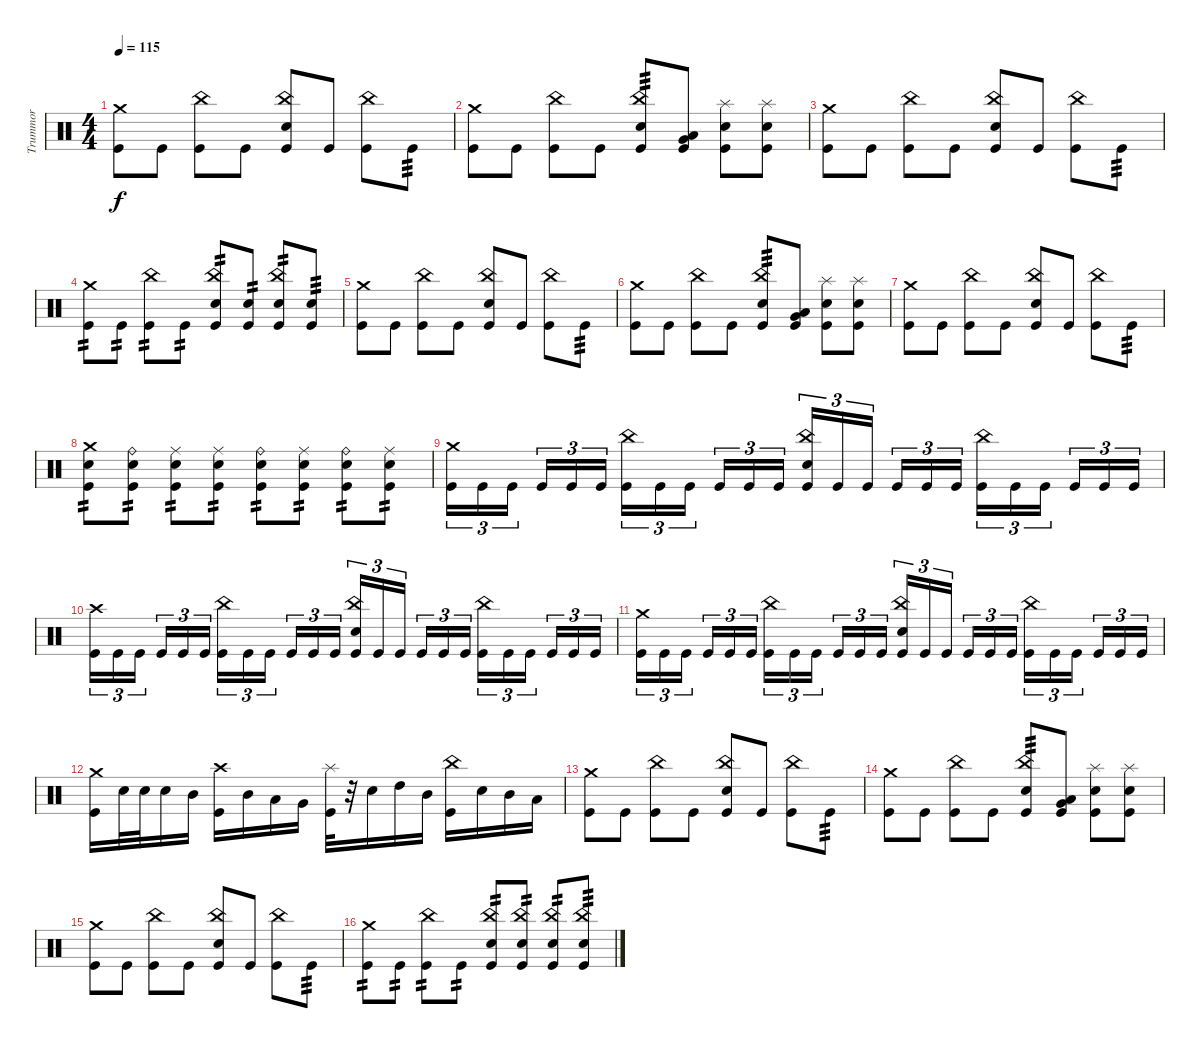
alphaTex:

\track ("Trummor" "Trummor") {instrument percussion}
\staff {score}
\articulation defaults
\ts (4 4)
\tempo 115
\clef neutral
\ks c
("Crash medium (hit)" "Kick (hit)").8{dy f} "Kick (hit)".8 ("China (hit)" "Kick (hit)").8 "Kick (hit)".8 ("China (hit)" "Electric Snare (hit)" "Kick (hit)").8 "Kick (hit)".8 ("China (hit)" "Kick (hit)").8 "Kick (hit)".8{tp 3} |
("Crash medium (hit)" "Kick (hit)").8 "Kick (hit)".8 ("China (hit)" "Kick (hit)").8 "Kick (hit)".8 ("China (hit)" "Electric Snare (hit)" "Kick (hit)").8{tp 3} ("Very Low Tom (hit)" "Low Tom (hit)" "Kick (hit)").8 ("Splash (hit)" "Electric Snare (hit)" "Kick (hit)").8 ("Splash (hit)" "Electric Snare (hit)" "Kick (hit)").8 |
("Crash medium (hit)" "Kick (hit)").8 "Kick (hit)".8 ("China (hit)" "Kick (hit)").8 "Kick (hit)".8 ("China (hit)" "Electric Snare (hit)" "Kick (hit)").8 "Kick (hit)".8 ("China (hit)" "Kick (hit)").8 "Kick (hit)".8{tp 3} |
("Crash medium (hit)" "Kick (hit)").8{tp 2} "Kick (hit)".8{tp 2} ("China (hit)" "Kick (hit)").8{tp 2} "Kick (hit)".8{tp 2} ("China (hit)" "Electric Snare (hit)" "Kick (hit)").8{tp 2} ("Electric Snare (hit)" "Kick (hit)").8{tp 2} ("China (hit)" "Electric Snare (hit)" "Kick (hit)").8{tp 2} ("Electric Snare (hit)" "Kick (hit)").8{tp 3} |
("Crash medium (hit)" "Kick (hit)").8 "Kick (hit)".8 ("China (hit)" "Kick (hit)").8 "Kick (hit)".8 ("China (hit)" "Electric Snare (hit)" "Kick (hit)").8 "Kick (hit)".8 ("China (hit)" "Kick (hit)").8 "Kick (hit)".8{tp 3} |
("Crash medium (hit)" "Kick (hit)").8 "Kick (hit)".8 ("China (hit)" "Kick (hit)").8 "Kick (hit)".8 ("China (hit)" "Electric Snare (hit)" "Kick (hit)").8{tp 3} ("Very Low Tom (hit)" "Low Tom (hit)" "Kick (hit)").8 ("Splash (hit)" "Electric Snare (hit)" "Kick (hit)").8 ("Splash (hit)" "Electric Snare (hit)" "Kick (hit)").8 |
("Crash medium (hit)" "Kick (hit)").8 "Kick (hit)".8 ("China (hit)" "Kick (hit)").8 "Kick (hit)".8 ("China (hit)" "Electric Snare (hit)" "Kick (hit)").8 "Kick (hit)".8 ("China (hit)" "Kick (hit)").8 "Kick (hit)".8{tp 3} |
("Crash medium (hit)" "Electric Snare (hit)" "Kick (hit)").8{tp 2} ("Ride (bell)" "Electric Snare (hit)" "Kick (hit)").8{tp 2} ("Ride (middle)" "Electric Snare (hit)" "Kick (hit)").8{tp 2} ("Ride (middle)" "Electric Snare (hit)" "Kick (hit)").8{tp 2} ("Ride (bell)" "Electric Snare (hit)" "Kick (hit)").8{tp 2} ("Ride (middle)" "Electric Snare (hit)" "Kick (hit)").8{tp 2} ("Ride (bell)" "Electric Snare (hit)" "Kick (hit)").8{tp 2} ("Ride (middle)" "Electric Snare (hit)" "Kick (hit)").8{tp 2} |
("Crash medium (hit)" "Kick (hit)").16{tu (3 2)} "Kick (hit)".16{tu (3 2)} "Kick (hit)".16{tu (3 2) beam splitsecondary} "Kick (hit)".16{tu (3 2)} "Kick (hit)".16{tu (3 2)} "Kick (hit)".16{tu (3 2)} ("China (hit)" "Kick (hit)").16{tu (3 2)} "Kick (hit)".16{tu (3 2)} "Kick (hit)".16{tu (3 2) beam splitsecondary} "Kick (hit)".16{tu (3 2)} "Kick (hit)".16{tu (3 2)} "Kick (hit)".16{tu (3 2)} ("China (hit)" "Electric Snare (hit)" "Kick (hit)").16{tu (3 2)} "Kick (hit)".16{tu (3 2)} "Kick (hit)".16{tu (3 2) beam splitsecondary} "Kick (hit)".16{tu (3 2)} "Kick (hit)".16{tu (3 2)} "Kick (hit)".16{tu (3 2)} ("China (hit)" "Kick (hit)").16{tu (3 2)} "Kick (hit)".16{tu (3 2)} "Kick (hit)".16{tu (3 2) beam splitsecondary} "Kick (hit)".16{tu (3 2)} "Kick (hit)".16{tu (3 2)} "Kick (hit)".16{tu (3 2)} |
("Crash high (hit)" "Kick (hit)").16{tu (3 2)} "Kick (hit)".16{tu (3 2)} "Kick (hit)".16{tu (3 2) beam splitsecondary} "Kick (hit)".16{tu (3 2)} "Kick (hit)".16{tu (3 2)} "Kick (hit)".16{tu (3 2)} ("China (hit)" "Kick (hit)").16{tu (3 2)} "Kick (hit)".16{tu (3 2)} "Kick (hit)".16{tu (3 2) beam splitsecondary} "Kick (hit)".16{tu (3 2)} "Kick (hit)".16{tu (3 2)} "Kick (hit)".16{tu (3 2)} ("China (hit)" "Electric Snare (hit)" "Kick (hit)").16{tu (3 2)} "Kick (hit)".16{tu (3 2)} "Kick (hit)".16{tu (3 2) beam splitsecondary} "Kick (hit)".16{tu (3 2)} "Kick (hit)".16{tu (3 2)} "Kick (hit)".16{tu (3 2)} ("China (hit)" "Kick (hit)").16{tu (3 2)} "Kick (hit)".16{tu (3 2)} "Kick (hit)".16{tu (3 2) beam splitsecondary} "Kick (hit)".16{tu (3 2)} "Kick (hit)".16{tu (3 2)} "Kick (hit)".16{tu (3 2)} |
("Crash medium (hit)" "Kick (hit)").16{tu (3 2)} "Kick (hit)".16{tu (3 2)} "Kick (hit)".16{tu (3 2) beam splitsecondary} "Kick (hit)".16{tu (3 2)} "Kick (hit)".16{tu (3 2)} "Kick (hit)".16{tu (3 2)} ("China (hit)" "Kick (hit)").16{tu (3 2)} "Kick (hit)".16{tu (3 2)} "Kick (hit)".16{tu (3 2) beam splitsecondary} "Kick (hit)".16{tu (3 2)} "Kick (hit)".16{tu (3 2)} "Kick (hit)".16{tu (3 2)} ("China (hit)" "Electric Snare (hit)" "Kick (hit)").16{tu (3 2)} "Kick (hit)".16{tu (3 2)} "Kick (hit)".16{tu (3 2) beam splitsecondary} "Kick (hit)".16{tu (3 2)} "Kick (hit)".16{tu (3 2)} "Kick (hit)".16{tu (3 2)} ("China (hit)" "Kick (hit)").16{tu (3 2)} "Kick (hit)".16{tu (3 2)} "Kick (hit)".16{tu (3 2) beam splitsecondary} "Kick (hit)".16{tu (3 2)} "Kick (hit)".16{tu (3 2)} "Kick (hit)".16{tu (3 2)} |
("Crash medium (hit)" "Kick (hit)").16 "Electric Snare (hit)".32 "Electric Snare (hit)".32 "Electric Snare (hit)".16 "Mid Tom (hit)".16 ("Crash high (hit)" "Kick (hit)").16 "Mid Tom (hit)".16 "Low Tom (hit)".16 "Very Low Tom (hit)".16 ("Splash (hit)" "Kick (hit)").32 r.32 "Electric Snare (hit)".16 "High Tom (hit)".16 "Mid Tom (hit)".16 ("China (hit)" "Kick (hit)").16 "Electric Snare (hit)".16 "Mid Tom (hit)".16 "Low Tom (hit)".16 |
("Crash medium (hit)" "Kick (hit)").8 "Kick (hit)".8 ("China (hit)" "Kick (hit)").8 "Kick (hit)".8 ("China (hit)" "Electric Snare (hit)" "Kick (hit)").8 "Kick (hit)".8 ("China (hit)" "Kick (hit)").8 "Kick (hit)".8{tp 3} |
("Crash medium (hit)" "Kick (hit)").8 "Kick (hit)".8 ("China (hit)" "Kick (hit)").8 "Kick (hit)".8 ("China (hit)" "Electric Snare (hit)" "Kick (hit)").8{tp 3} ("Very Low Tom (hit)" "Low Tom (hit)" "Kick (hit)").8 ("Splash (hit)" "Electric Snare (hit)" "Kick (hit)").8 ("Splash (hit)" "Electric Snare (hit)" "Kick (hit)").8 |
("Crash medium (hit)" "Kick (hit)").8 "Kick (hit)".8 ("China (hit)" "Kick (hit)").8 "Kick (hit)".8 ("China (hit)" "Electric Snare (hit)" "Kick (hit)").8 "Kick (hit)".8 ("China (hit)" "Kick (hit)").8 "Kick (hit)".8{tp 3} |
("Crash medium (hit)" "Kick (hit)").8{tp 2} "Kick (hit)".8{tp 2} ("China (hit)" "Kick (hit)").8{tp 2} "Kick (hit)".8{tp 2} ("China (hit)" "Electric Snare (hit)" "Kick (hit)").8{tp 2} ("China (hit)" "Electric Snare (hit)" "Kick (hit)").8{tp 2} ("China (hit)" "Electric Snare (hit)" "Kick (hit)").8{tp 2} ("China (hit)" "Electric Snare (hit)" "Kick (hit)").8{tp 3}
